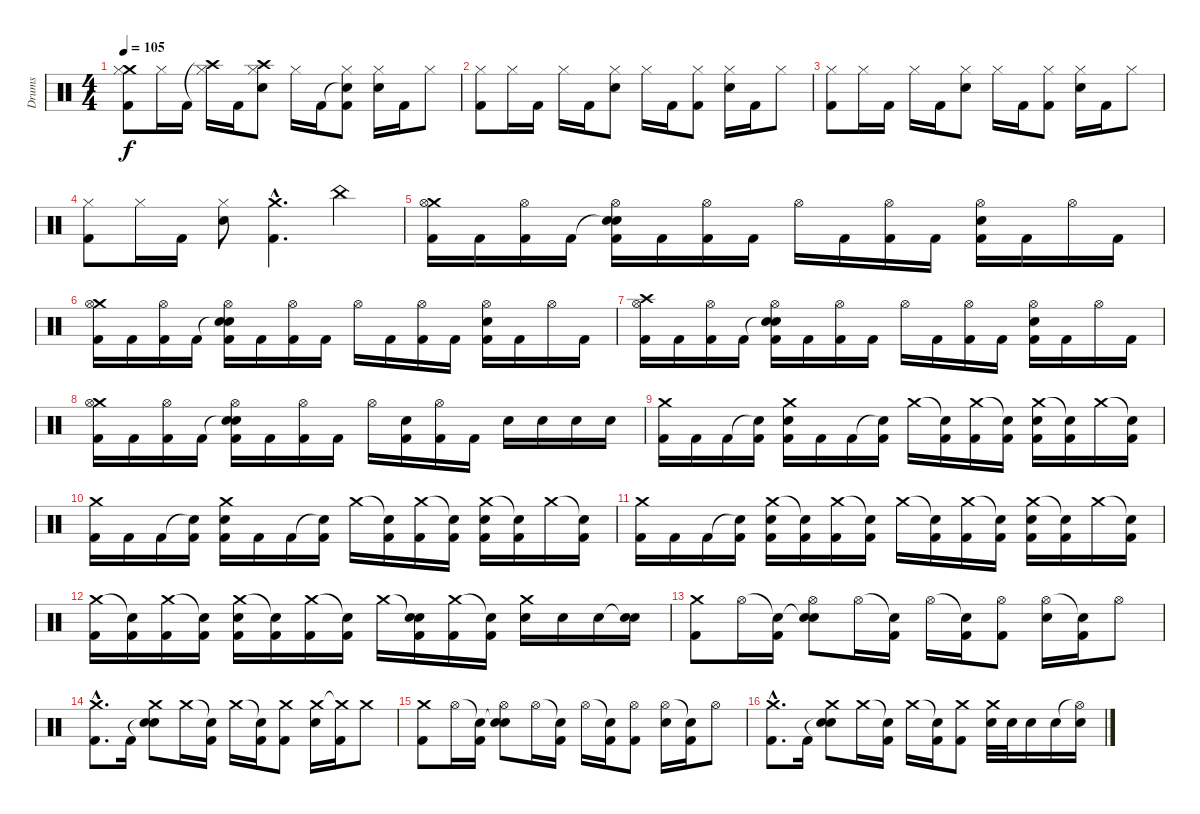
\track ("Drums" "Drums") {instrument percussion}
\staff {score}
\articulation defaults
\ts (4 4)
\tempo 105
\clef neutral
\ks c
("Crash medium (hit)" "Hi-Hat (closed)" "Kick (hit) 2").8{dy f} "Hi-Hat (closed)".16 "Kick (hit) 2".16 ("Crash high (hit)"{t} "Hi-Hat (closed)").16 "Kick (hit) 2".16 ("Crash high (hit)" "Hi-Hat (closed)" "Electric Snare (hit)").8 "Hi-Hat (closed)".16 "Kick (hit) 2".16 ("Snare (hit)"{t} "Hi-Hat (closed)" "Kick (hit) 2").8 ("Hi-Hat (closed)" "Electric Snare (hit)").16 "Kick (hit) 2".16 "Hi-Hat (closed)".8 |
("Hi-Hat (closed)" "Kick (hit) 2").8 "Hi-Hat (closed)".16 "Kick (hit) 2".16 "Hi-Hat (closed)".16 "Kick (hit) 2".16 ("Hi-Hat (closed)" "Electric Snare (hit)").8 "Hi-Hat (closed)".16 "Kick (hit) 2".16 ("Hi-Hat (closed)" "Kick (hit) 2").8 ("Hi-Hat (closed)" "Electric Snare (hit)").16 "Kick (hit) 2".16 "Hi-Hat (closed)".8 |
("Hi-Hat (closed)" "Kick (hit) 2").8 "Hi-Hat (closed)".16 "Kick (hit) 2".16 "Hi-Hat (closed)".16 "Kick (hit) 2".16 ("Hi-Hat (closed)" "Electric Snare (hit)").8 "Hi-Hat (closed)".16 "Kick (hit) 2".16 ("Hi-Hat (closed)" "Kick (hit) 2").8 ("Hi-Hat (closed)" "Electric Snare (hit)").16 "Kick (hit) 2".16 "Hi-Hat (closed)".8 |
("Hi-Hat (closed)" "Kick (hit) 2").8 "Hi-Hat (closed)".16 "Kick (hit) 2".16 ("Hi-Hat (closed)" "Electric Snare (hit)").8 ("Crash medium (hit)"{hac} "Kick (hit) 2"{hac}).4{d} "China (hit)".4 |
("Crash medium (hit)" "Hi-Hat (open)" "Kick (hit) 2").16 "Kick (hit) 2".16 ("Hi-Hat (open)" "Kick (hit) 2").16 "Kick (hit) 2".16 ("Snare (hit)"{t} "Hi-Hat (open)" "Electric Snare (hit)" "Kick (hit) 2").16 "Kick (hit) 2".16 ("Hi-Hat (open)" "Kick (hit) 2").16 "Kick (hit) 2".16 "Hi-Hat (open)".16 "Kick (hit) 2".16 ("Hi-Hat (open)" "Kick (hit) 2").16 "Kick (hit) 2".16 ("Hi-Hat (open)" "Electric Snare (hit)" "Kick (hit) 2").16 "Kick (hit) 2".16 "Hi-Hat (open)".16 "Kick (hit) 2".16 |
("Crash medium (hit)" "Hi-Hat (open)" "Kick (hit) 2").16 "Kick (hit) 2".16 ("Hi-Hat (open)" "Kick (hit) 2").16 "Kick (hit) 2".16 ("Snare (hit)"{t} "Hi-Hat (open)" "Electric Snare (hit)" "Kick (hit) 2").16 "Kick (hit) 2".16 ("Hi-Hat (open)" "Kick (hit) 2").16 "Kick (hit) 2".16 "Hi-Hat (open)".16 "Kick (hit) 2".16 ("Hi-Hat (open)" "Kick (hit) 2").16 "Kick (hit) 2".16 ("Hi-Hat (open)" "Electric Snare (hit)" "Kick (hit) 2").16 "Kick (hit) 2".16 "Hi-Hat (open)".16 "Kick (hit) 2".16 |
("Crash high (hit)" "Hi-Hat (open)" "Kick (hit) 2").16 "Kick (hit) 2".16 ("Hi-Hat (open)" "Kick (hit) 2").16 "Kick (hit) 2".16 ("Snare (hit)"{t} "Hi-Hat (open)" "Electric Snare (hit)" "Kick (hit) 2").16 "Kick (hit) 2".16 ("Hi-Hat (open)" "Kick (hit) 2").16 "Kick (hit) 2".16 "Hi-Hat (open)".16 "Kick (hit) 2".16 ("Hi-Hat (open)" "Kick (hit) 2").16 "Kick (hit) 2".16 ("Hi-Hat (open)" "Electric Snare (hit)" "Kick (hit) 2").16 "Kick (hit) 2".16 "Hi-Hat (open)".16 "Kick (hit) 2".16 |
("Crash medium (hit)" "Hi-Hat (open)" "Kick (hit) 2").16 "Kick (hit) 2".16 ("Hi-Hat (open)" "Kick (hit) 2").16 "Kick (hit) 2".16 ("Snare (hit)"{t} "Hi-Hat (open)" "Electric Snare (hit)" "Kick (hit) 2").16 "Kick (hit) 2".16 ("Hi-Hat (open)" "Kick (hit) 2").16 "Kick (hit) 2".16 "Hi-Hat (open)".16 ("Electric Snare (hit)" "Kick (hit) 2").16 ("Hi-Hat (open)" "Kick (hit) 2").16 "Kick (hit) 2".16 "Electric Snare (hit)".16 "Electric Snare (hit)".16 "Electric Snare (hit)".16 "Electric Snare (hit)".16 |
("Crash medium (hit)" "Kick (hit) 2").16 "Kick (hit) 2".16 "Kick (hit) 2".16 ("Snare (hit)"{t} "Kick (hit) 2").16 ("Crash medium (hit)" "Electric Snare (hit)" "Kick (hit) 2").16 "Kick (hit) 2".16 "Kick (hit) 2".16 ("Snare (hit)"{t} "Kick (hit) 2").16 "Crash medium (hit)".16 ("Snare (hit)"{t} "Kick (hit) 2").16 ("Crash medium (hit)" "Kick (hit) 2").16 ("Snare (hit)"{t} "Kick (hit) 2").16 ("Crash medium (hit)" "Electric Snare (hit)" "Kick (hit) 2").16 ("Snare (hit)"{t} "Kick (hit) 2").16 "Crash medium (hit)".16 ("Snare (hit)"{t} "Kick (hit) 2").16 |
("Crash medium (hit)" "Kick (hit) 2").16 "Kick (hit) 2".16 "Kick (hit) 2".16 ("Snare (hit)"{t} "Kick (hit) 2").16 ("Crash medium (hit)" "Electric Snare (hit)" "Kick (hit) 2").16 "Kick (hit) 2".16 "Kick (hit) 2".16 ("Snare (hit)"{t} "Kick (hit) 2").16 "Crash medium (hit)".16 ("Snare (hit)"{t} "Kick (hit) 2").16 ("Crash medium (hit)" "Kick (hit) 2").16 ("Snare (hit)"{t} "Kick (hit) 2").16 ("Crash medium (hit)" "Electric Snare (hit)" "Kick (hit) 2").16 ("Snare (hit)"{t} "Kick (hit) 2").16 "Crash medium (hit)".16 ("Snare (hit)"{t} "Kick (hit) 2").16 |
("Crash medium (hit)" "Kick (hit) 2").16 "Kick (hit) 2".16 "Kick (hit) 2".16 ("Snare (hit)"{t} "Kick (hit) 2").16 ("Crash medium (hit)" "Electric Snare (hit)" "Kick (hit) 2").16 ("Snare (hit)"{t} "Kick (hit) 2").16 ("Crash medium (hit)" "Kick (hit) 2").16 ("Snare (hit)"{t} "Kick (hit) 2").16 "Crash medium (hit)".16 ("Snare (hit)"{t} "Kick (hit) 2").16 ("Crash medium (hit)" "Kick (hit) 2").16 ("Snare (hit)"{t} "Kick (hit) 2").16 ("Crash medium (hit)" "Electric Snare (hit)" "Kick (hit) 2").16 ("Snare (hit)"{t} "Kick (hit) 2").16 "Crash medium (hit)".16 ("Snare (hit)"{t} "Kick (hit) 2").16 |
("Crash medium (hit)" "Kick (hit) 2").16 ("Snare (hit)"{t} "Kick (hit) 2").16 ("Crash medium (hit)" "Kick (hit) 2").16 ("Snare (hit)"{t} "Kick (hit) 2").16 ("Crash medium (hit)" "Electric Snare (hit)" "Kick (hit) 2").16 ("Snare (hit)"{t} "Kick (hit) 2").16 ("Crash medium (hit)" "Kick (hit) 2").16 ("Snare (hit)"{t} "Kick (hit) 2").16 "Crash medium (hit)".16 ("Snare (hit)"{t} "Electric Snare (hit)" "Kick (hit) 2").16 ("Crash medium (hit)" "Kick (hit) 2").16 ("Snare (hit)"{t} "Kick (hit) 2").16 ("Crash medium (hit)" "Electric Snare (hit)").16 "Electric Snare (hit)".16 "Electric Snare (hit)".16 ("Snare (hit)"{t} "Electric Snare (hit)").16 |
("Crash medium (hit)" "Kick (hit) 2").8 "Hi-Hat (open)".16 ("Snare (hit)"{t} "Kick (hit) 2").16 ("Snare (hit)"{t} "Hi-Hat (open)" "Electric Snare (hit)").8 "Hi-Hat (open)".16 ("Snare (hit)"{t} "Kick (hit) 2").16 "Hi-Hat (open)".16 ("Snare (hit)"{t} "Kick (hit) 2").16 ("Hi-Hat (open)" "Kick (hit) 2").8 ("Hi-Hat (open)" "Electric Snare (hit)").16 ("Snare (hit)"{t} "Kick (hit) 2").16 "Hi-Hat (open)".8 |
("Crash medium (hit)"{hac} "Kick (hit) 2"{hac}).8{d} "Kick (hit) 2".16 ("Snare (hit)"{t} "Crash medium (hit)" "Electric Snare (hit)").8 "Crash medium (hit)".16 ("Snare (hit)"{t} "Kick (hit) 2").16 "Crash medium (hit)".16 ("Snare (hit)"{t} "Kick (hit) 2").16 ("Crash medium (hit)" "Kick (hit) 2").8 ("Crash medium (hit)" "Electric Snare (hit)").16 ("Crash medium (hit)"{t} "Kick (hit) 2").16 "Crash medium (hit)".8 |
("Crash medium (hit)" "Kick (hit) 2").8 "Hi-Hat (open)".16 ("Snare (hit)"{t} "Kick (hit) 2").16 ("Snare (hit)"{t} "Hi-Hat (open)" "Electric Snare (hit)").8 "Hi-Hat (open)".16 ("Snare (hit)"{t} "Kick (hit) 2").16 "Hi-Hat (open)".16 ("Snare (hit)"{t} "Kick (hit) 2").16 ("Hi-Hat (open)" "Kick (hit) 2").8 ("Hi-Hat (open)" "Electric Snare (hit)").16 ("Snare (hit)"{t} "Kick (hit) 2").16 "Hi-Hat (open)".8 |
("Crash medium (hit)"{hac} "Kick (hit) 2"{hac}).8{d} "Kick (hit) 2".16 ("Snare (hit)"{t} "Crash medium (hit)" "Electric Snare (hit)").8 "Crash medium (hit)".16 ("Snare (hit)"{t} "Kick (hit) 2").16 "Crash medium (hit)".16 ("Snare (hit)"{t} "Kick (hit) 2").16 ("Crash medium (hit)" "Kick (hit) 2").8 ("Crash medium (hit)" "Electric Snare (hit)").32 "Electric Snare (hit)".32 "Electric Snare (hit)".16 "Electric Snare (hit)".16 ("Hi-Hat (open)"{t} "Electric Snare (hit)").16
